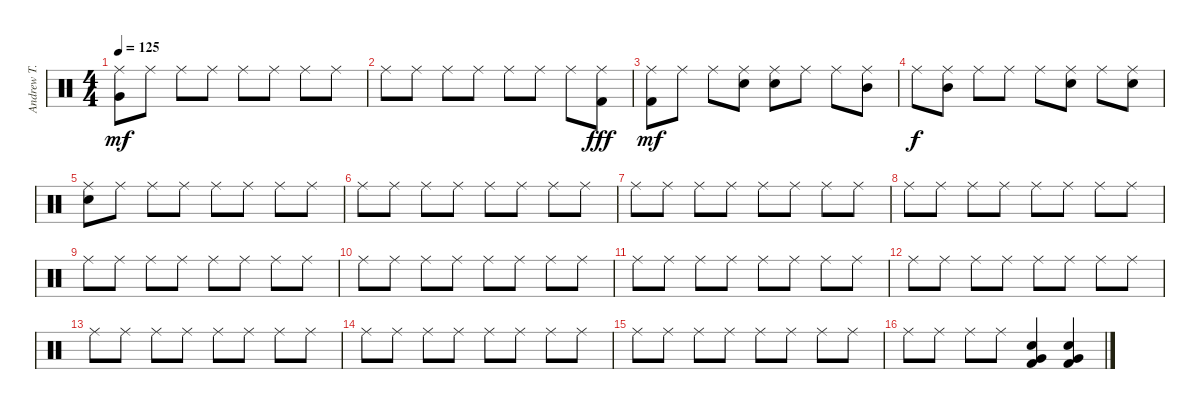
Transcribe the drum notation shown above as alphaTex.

\track ("Andrew T." "Andrew T.") {instrument percussion}
\staff {score}
\articulation defaults
\ts (4 4)
\tempo 125
\clef neutral
\ks c
("Ride (middle)" "Very Low Tom (hit)").8{dy mf} "Ride (middle)".8 "Ride (middle)".8 "Ride (middle)".8 "Ride (middle)".8 "Ride (middle)".8 "Ride (middle)".8 "Ride (middle)".8 |
"Ride (middle)".8 "Ride (middle)".8 "Ride (middle)".8 "Ride (middle)".8 "Ride (middle)".8 "Ride (middle)".8 "Ride (middle)".8 ("Ride (middle)" "Kick (hit) 2").8{dy fff} |
("Ride (middle)" "Kick (hit) 2").8{dy mf} "Ride (middle)".8 "Ride (middle)".8 ("Ride (middle)" "Electric Snare (hit)").8 ("Ride (middle)" "Electric Snare (hit)").8 "Ride (middle)".8 "Ride (middle)".8 ("Ride (middle)" "Mid Tom (hit)").8 |
"Ride (middle)".8{dy f} ("Ride (middle)" "Mid Tom (hit)").8 "Ride (middle)".8 "Ride (middle)".8 "Ride (middle)".8 ("Ride (middle)" "Electric Snare (hit)").8 "Ride (middle)".8 ("Ride (middle)" "Electric Snare (hit)").8 |
("Ride (middle)" "Electric Snare (hit)").8 "Ride (middle)".8 "Ride (middle)".8 "Ride (middle)".8 "Ride (middle)".8 "Ride (middle)".8 "Ride (middle)".8 "Ride (middle)".8 |
"Ride (middle)".8 "Ride (middle)".8 "Ride (middle)".8 "Ride (middle)".8 "Ride (middle)".8 "Ride (middle)".8 "Ride (middle)".8 "Ride (middle)".8 |
"Ride (middle)".8 "Ride (middle)".8 "Ride (middle)".8 "Ride (middle)".8 "Ride (middle)".8 "Ride (middle)".8 "Ride (middle)".8 "Ride (middle)".8 |
"Ride (middle)".8 "Ride (middle)".8 "Ride (middle)".8 "Ride (middle)".8 "Ride (middle)".8 "Ride (middle)".8 "Ride (middle)".8 "Ride (middle)".8 |
"Ride (middle)".8 "Ride (middle)".8 "Ride (middle)".8 "Ride (middle)".8 "Ride (middle)".8 "Ride (middle)".8 "Ride (middle)".8 "Ride (middle)".8 |
"Ride (middle)".8 "Ride (middle)".8 "Ride (middle)".8 "Ride (middle)".8 "Ride (middle)".8 "Ride (middle)".8 "Ride (middle)".8 "Ride (middle)".8 |
"Ride (middle)".8 "Ride (middle)".8 "Ride (middle)".8 "Ride (middle)".8 "Ride (middle)".8 "Ride (middle)".8 "Ride (middle)".8 "Ride (middle)".8 |
"Ride (middle)".8 "Ride (middle)".8 "Ride (middle)".8 "Ride (middle)".8 "Ride (middle)".8 "Ride (middle)".8 "Ride (middle)".8 "Ride (middle)".8 |
"Ride (middle)".8 "Ride (middle)".8 "Ride (middle)".8 "Ride (middle)".8 "Ride (middle)".8 "Ride (middle)".8 "Ride (middle)".8 "Ride (middle)".8 |
"Ride (middle)".8 "Ride (middle)".8 "Ride (middle)".8 "Ride (middle)".8 "Ride (middle)".8 "Ride (middle)".8 "Ride (middle)".8 "Ride (middle)".8 |
"Ride (middle)".8 "Ride (middle)".8 "Ride (middle)".8 "Ride (middle)".8 "Ride (middle)".8 "Ride (middle)".8 "Ride (middle)".8 "Ride (middle)".8 |
"Ride (middle)".8 "Ride (middle)".8 "Ride (middle)".8 "Ride (middle)".8 ("Kick (hit) 2" "Electric Snare (hit)" "Very Low Tom (hit)").4 ("Kick (hit) 2" "Electric Snare (hit)" "Very Low Tom (hit)").4
